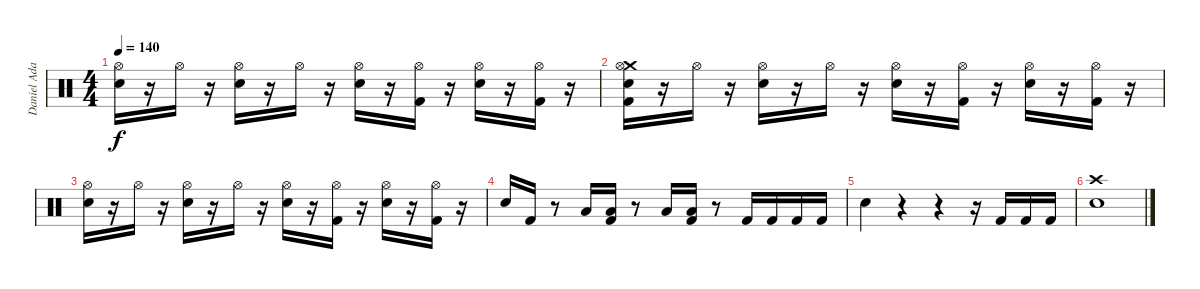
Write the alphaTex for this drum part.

\track ("Daniel Adair" "Daniel Ada") {instrument percussion}
\staff {score}
\articulation defaults
\ts (4 4)
\tempo 140
\clef neutral
\ks c
("Hi-Hat (open)" "Snare (hit) 2").16{dy f} r.16 "Hi-Hat (open)".16 r.16 ("Hi-Hat (open)" "Snare (hit) 2").16 r.16 "Hi-Hat (open)".16 r.16 ("Hi-Hat (open)" "Snare (hit) 2").16 r.16 ("Hi-Hat (open)" "Kick (hit) 2").16 r.16 ("Hi-Hat (open)" "Snare (hit) 2").16 r.16 ("Hi-Hat (open)" "Kick (hit) 2").16 r.16 |
("Crash medium (hit)" "Hi-Hat (open)" "Snare (hit) 2" "Kick (hit) 2").16 r.16 "Hi-Hat (open)".16 r.16 ("Hi-Hat (open)" "Snare (hit) 2").16 r.16 "Hi-Hat (open)".16 r.16 ("Hi-Hat (open)" "Snare (hit) 2").16 r.16 ("Hi-Hat (open)" "Kick (hit) 2").16 r.16 ("Hi-Hat (open)" "Snare (hit) 2").16 r.16 ("Hi-Hat (open)" "Kick (hit) 2").16 r.16 |
("Hi-Hat (open)" "Snare (hit) 2").16 r.16 "Hi-Hat (open)".16 r.16 ("Hi-Hat (open)" "Snare (hit) 2").16 r.16 "Hi-Hat (open)".16 r.16 ("Hi-Hat (open)" "Snare (hit) 2").16 r.16 ("Hi-Hat (open)" "Kick (hit) 2").16 r.16 ("Hi-Hat (open)" "Snare (hit) 2").16 r.16 ("Hi-Hat (open)" "Kick (hit) 2").16 r.16 |
"Snare (hit) 2".16 "Kick (hit) 2".16 r.8 "Low Floor Tom (hit)".16 ("Low Floor Tom (hit)" "Kick (hit) 2").16 r.8 "Low Floor Tom (hit)".16 ("Low Floor Tom (hit)" "Kick (hit) 2").16 r.8 "Kick (hit) 2".16 "Kick (hit) 2".16 "Kick (hit) 2".16 "Kick (hit) 2".16 |
"Snare (hit) 2".4 r.4 r.4 r.16 "Kick (hit) 2".16 "Kick (hit) 2".16 "Kick (hit) 2".16 |
("Crash high (hit)" "Snare (hit) 2").1
